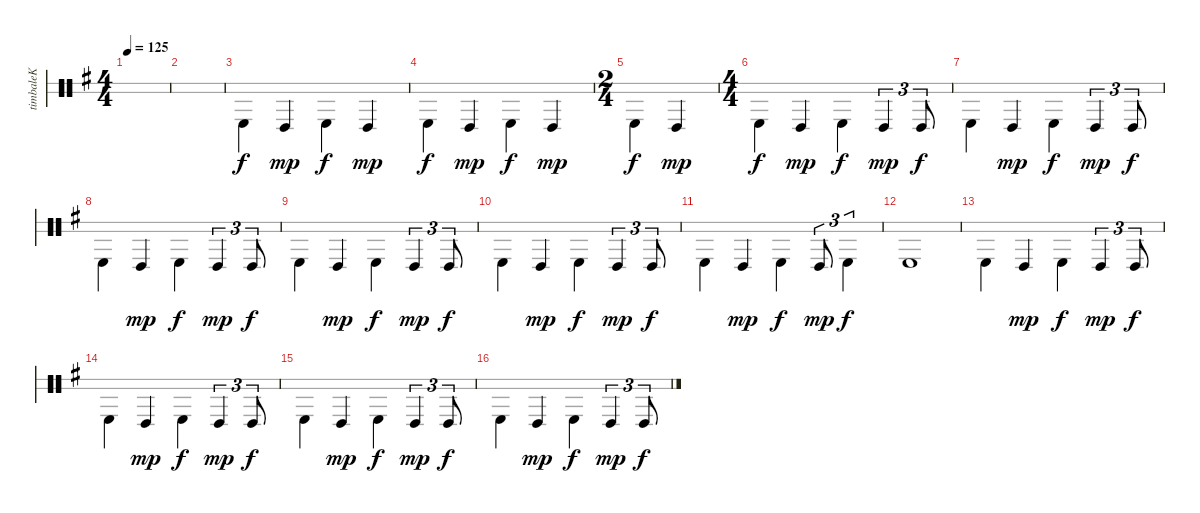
\defaultSystemsLayout 4
\bracketExtendMode groupsimilarinstruments
\otherSystemsTrackNameOrientation horizontal
\track ("Timbale" "timbaleK") {instrument percussion}
\staff {score 2}
\articulation defaults
\ts (4 4)
\tempo 125
\clef neutral
\scale
0.333333
\ks g
|
\scale
0.333333 |
\scale
0.262911 "Timbale high (hit)"{acc forcenatural}.4{beam Down} "Timbale low (hit)"{acc forcenatural}.4{dy mp beam Up} "Timbale high (hit)"{acc forcenatural}.4{dy f beam Down} "Timbale low (hit)"{acc forcenatural}.4{dy mp beam Up} |
\scale
0.262911 "Timbale high (hit)"{acc forcenatural}.4{dy f beam Down} "Timbale low (hit)"{acc forcenatural}.4{dy mp beam Up} "Timbale high (hit)"{acc forcenatural}.4{dy f beam Down} "Timbale low (hit)"{acc forcenatural}.4{dy mp beam Up} |
\ts (2 4)
\scale
0.474178 "Timbale high (hit)"{acc forcenatural}.4{dy f beam Down} "Timbale low (hit)"{acc forcenatural}.4{dy mp beam Up} |
\ts (4 4)
\scale
0.474178 "Timbale high (hit)"{acc forcenatural}.4{dy f beam Down} "Timbale low (hit)"{acc forcenatural}.4{dy mp beam Up} "Timbale high (hit)"{acc forcenatural}.4{dy f beam Down} "Timbale low (hit)"{acc forcenatural}.4{tu (3 2) dy mp beam Up} "Timbale low (hit)"{acc forcenatural}.8{tu (3 2) dy f beam Up} |
\scale
0.262911 "Timbale high (hit)"{acc forcenatural}.4{beam Down} "Timbale low (hit)"{acc forcenatural}.4{dy mp beam Up} "Timbale high (hit)"{acc forcenatural}.4{dy f beam Down} "Timbale low (hit)"{acc forcenatural}.4{tu (3 2) dy mp beam Up} "Timbale low (hit)"{acc forcenatural}.8{tu (3 2) dy f beam Up} |
\scale
0.262911 "Timbale high (hit)"{acc forcenatural}.4{beam Down} "Timbale low (hit)"{acc forcenatural}.4{dy mp beam Up} "Timbale high (hit)"{acc forcenatural}.4{dy f beam Down} "Timbale low (hit)"{acc forcenatural}.4{tu (3 2) dy mp beam Up} "Timbale low (hit)"{acc forcenatural}.8{tu (3 2) dy f beam Up} |
\scale
0.333333 "Timbale high (hit)"{acc forcenatural}.4{beam Down} "Timbale low (hit)"{acc forcenatural}.4{dy mp beam Up} "Timbale high (hit)"{acc forcenatural}.4{dy f beam Down} "Timbale low (hit)"{acc forcenatural}.4{tu (3 2) dy mp beam Up} "Timbale low (hit)"{acc forcenatural}.8{tu (3 2) dy f beam Up} |
\scale
0.333333 "Timbale high (hit)"{acc forcenatural}.4{beam Down} "Timbale low (hit)"{acc forcenatural}.4{dy mp beam Up} "Timbale high (hit)"{acc forcenatural}.4{dy f beam Down} "Timbale low (hit)"{acc forcenatural}.4{tu (3 2) dy mp beam Up} "Timbale low (hit)"{acc forcenatural}.8{tu (3 2) dy f beam Up} |
\scale
0.333333 "Timbale high (hit)"{acc forcenatural}.4{beam Down} "Timbale low (hit)"{acc forcenatural}.4{dy mp beam Up} "Timbale high (hit)"{acc forcenatural}.4{dy f beam Down} "Timbale low (hit)"{acc forcenatural}.8{tu (3 2) dy mp beam Up} "Timbale high (hit)"{acc forcenatural}.4{tu (3 2) dy f beam Down} |
\scale
0.333333 "Timbale high (hit)"{acc forcenatural}.1{beam Down} |
\scale
0.333333 "Timbale high (hit)"{acc forcenatural}.4{beam Down} "Timbale low (hit)"{acc forcenatural}.4{dy mp beam Up} "Timbale high (hit)"{acc forcenatural}.4{dy f beam Down} "Timbale low (hit)"{acc forcenatural}.4{tu (3 2) dy mp beam Up} "Timbale low (hit)"{acc forcenatural}.8{tu (3 2) dy f beam Up} |
\scale
0.333333 "Timbale high (hit)"{acc forcenatural}.4{beam Down} "Timbale low (hit)"{acc forcenatural}.4{dy mp beam Up} "Timbale high (hit)"{acc forcenatural}.4{dy f beam Down} "Timbale low (hit)"{acc forcenatural}.4{tu (3 2) dy mp beam Up} "Timbale low (hit)"{acc forcenatural}.8{tu (3 2) dy f beam Up} |
\scale
0.333333 "Timbale high (hit)"{acc forcenatural}.4{beam Down} "Timbale low (hit)"{acc forcenatural}.4{dy mp beam Up} "Timbale high (hit)"{acc forcenatural}.4{dy f beam Down} "Timbale low (hit)"{acc forcenatural}.4{tu (3 2) dy mp beam Up} "Timbale low (hit)"{acc forcenatural}.8{tu (3 2) dy f beam Up} |
\scale
0.333333 "Timbale high (hit)"{acc forcenatural}.4{beam Down} "Timbale low (hit)"{acc forcenatural}.4{dy mp beam Up} "Timbale high (hit)"{acc forcenatural}.4{dy f beam Down} "Timbale low (hit)"{acc forcenatural}.4{tu (3 2) dy mp beam Up} "Timbale low (hit)"{acc forcenatural}.8{tu (3 2) dy f beam Up}
